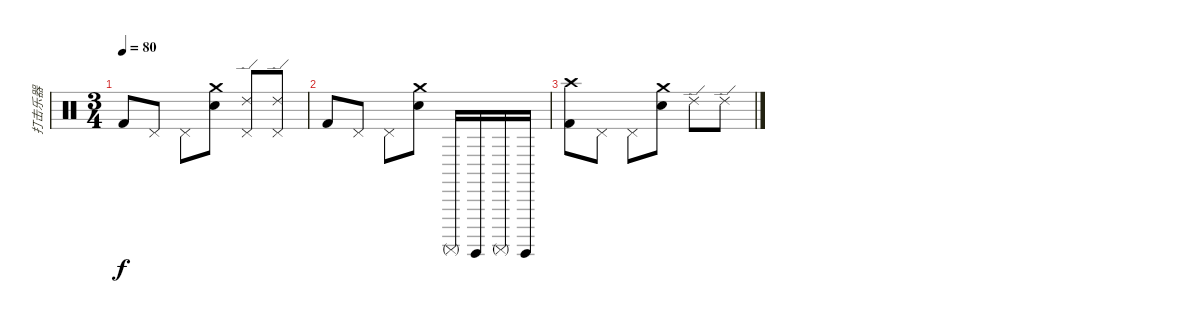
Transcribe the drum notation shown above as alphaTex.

\track ("打击乐器" "打击乐器") {instrument percussion}
\staff {score}
\articulation defaults
\ts (3 4)
\tempo 80
\clef neutral
\ks c "Kick (hit) 2".8{dy f} "Pedal Hi-Hat (hit)".8 "Pedal Hi-Hat (hit)".8
("Crash medium (hit)" "Snare (hit) 2").8 ("Pedal Hi-Hat (hit)" "Ride (edge) 2").8 ("Pedal Hi-Hat (hit)" "Ride (edge) 2").8 |
"Kick (hit) 2".8 "Pedal Hi-Hat (hit)".8 "Pedal Hi-Hat (hit)".8 ("Crash medium (hit)" "Snare (hit) 2").8 "Surdo (mute)".16 "Surdo (hit)".16 "Surdo (mute)".16 "Surdo (hit)".16 |
("Crash high (hit)" "Kick (hit) 2").8 "Pedal Hi-Hat (hit)".8 "Pedal Hi-Hat (hit)".8 ("Crash medium (hit)" "Snare (hit) 2").8 "Ride (edge) 2".8 "Ride (edge) 2".8
